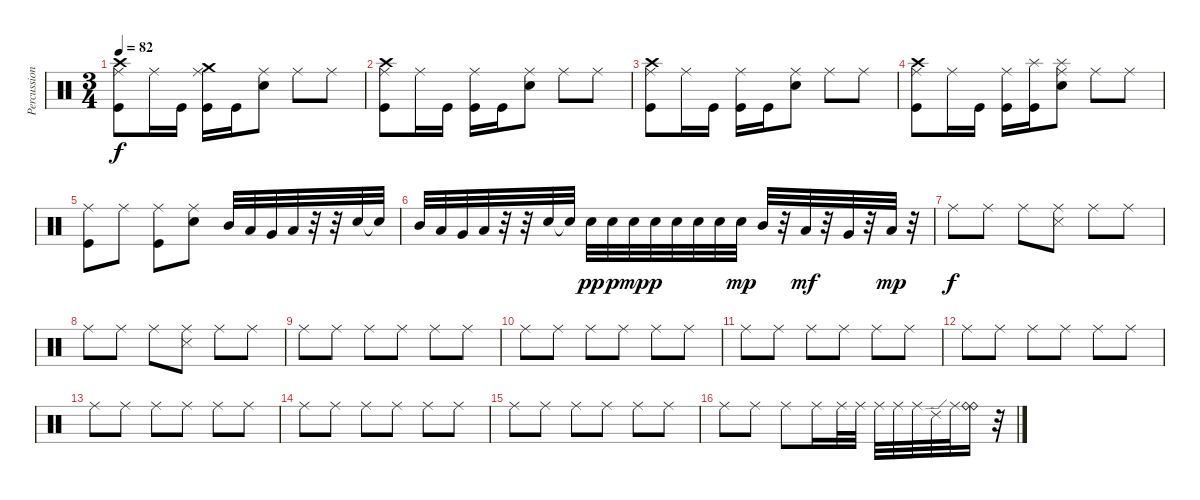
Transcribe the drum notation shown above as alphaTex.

\track ("Percussions" "Percussion") {instrument percussion}
\staff {score}
\articulation defaults
\ts (3 4)
\tempo 82
\clef neutral
\ks c
("Ride (middle)" "Crash high (hit)" "Kick (hit)").8{dy f} "Ride (middle)".16 "Kick (hit)".16 ("Ride (middle)" "Crash medium (hit)" "Kick (hit)").16 "Kick (hit)".16 ("Ride (middle)" "Electric Snare (hit)").8 "Ride (middle)".8 "Ride (middle)".8 |
("Ride (middle)" "Crash high (hit)" "Kick (hit)").8 "Ride (middle)".16 "Kick (hit)".16 ("Ride (middle)" "Kick (hit)").16 "Kick (hit)".16 ("Ride (middle)" "Electric Snare (hit)").8 "Ride (middle)".8 "Ride (middle)".8 |
("Ride (middle)" "Crash high (hit)" "Kick (hit)").8 "Ride (middle)".16 "Kick (hit)".16 ("Ride (middle)" "Kick (hit)").16 "Kick (hit)".16 ("Ride (middle)" "Electric Snare (hit)").8 "Ride (middle)".8 "Ride (middle)".8 |
("Ride (middle)" "Crash high (hit)" "Kick (hit)").8 "Ride (middle)".16 "Kick (hit)".16 ("Ride (middle)" "Kick (hit)").16 ("Splash (hit)" "Kick (hit)").16 ("Ride (middle)" "Splash (hit)" "Electric Snare (hit)").8 "Ride (middle)".8 "Ride (middle)".8 |
("Ride (middle)" "Kick (hit)").8 "Ride (middle)".8 ("Ride (middle)" "Kick (hit)").8 ("Ride (middle)" "Electric Snare (hit)").8 "Mid Tom (hit)".32 "Low Tom (hit)".32 "Very Low Tom (hit)".32 "Low Floor Tom (hit)".32 r.32 r.32 "Electric Snare (hit)".32 "Snare (hit)"{t}.32 |
"Mid Tom (hit)".32 "Low Tom (hit)".32 "Very Low Tom (hit)".32 "Low Floor Tom (hit)".32 r.32 r.32 "Snare (hit) 2".32 "Snare (hit)"{t}.32 "Electric Snare (hit)".32{dy pp} "Electric Snare (hit)".32{dy p} "Electric Snare (hit)".32{dy mp} "Electric Snare (hit)".32{dy p} "Electric Snare (hit)".32 "Electric Snare (hit)".32 "Electric Snare (hit)".32 "Electric Snare (hit)".32{dy mp} "Mid Tom (hit)".32 r.32 "Low Tom (hit)".32{dy mf} r.32 "Very Low Tom (hit)".32 r.32 "Low Floor Tom (hit)".32{dy mp} r.32 |
"Ride (middle)".8{dy f} "Ride (middle)".8 "Ride (middle)".8 ("Ride (middle)" "Metronome (hit)").8 "Ride (middle)".8 "Ride (middle)".8 |
"Ride (middle)".8 "Ride (middle)".8 "Ride (middle)".8 ("Ride (middle)" "Metronome (hit)").8 "Ride (middle)".8 "Ride (middle)".8 |
"Ride (middle)".8 "Ride (middle)".8 "Ride (middle)".8 "Ride (middle)".8 "Ride (middle)".8 "Ride (middle)".8 |
"Ride (middle)".8 "Ride (middle)".8 "Ride (middle)".8 "Ride (middle)".8 "Ride (middle)".8 "Ride (middle)".8 |
"Ride (middle)".8 "Ride (middle)".8 "Ride (middle)".8 "Ride (middle)".8 "Ride (middle)".8 "Ride (middle)".8 |
"Ride (middle)".8 "Ride (middle)".8 "Ride (middle)".8 "Ride (middle)".8 "Ride (middle)".8 "Ride (middle)".8 |
"Ride (middle)".8 "Ride (middle)".8 "Ride (middle)".8 "Ride (middle)".8 "Ride (middle)".8 "Ride (middle)".8 |
"Ride (middle)".8 "Ride (middle)".8 "Ride (middle)".8 "Ride (middle)".8 "Ride (middle)".8 "Ride (middle)".8 |
"Ride (middle)".8 "Ride (middle)".8 "Ride (middle)".8 "Ride (middle)".8 "Ride (middle)".8 "Ride (middle)".8 |
"Ride (middle)".8 "Ride (middle)".8 "Ride (middle)".8 "Ride (middle)".16 "Ride (middle)".32 "Ride (middle)".32 "Ride (middle)".32 "Ride (middle)".32 "Ride (middle)".32 "Ride (edge) 2".32 "Ride (middle)".32 ("Ride (bell)" "Ride (bell)").16 r.32
